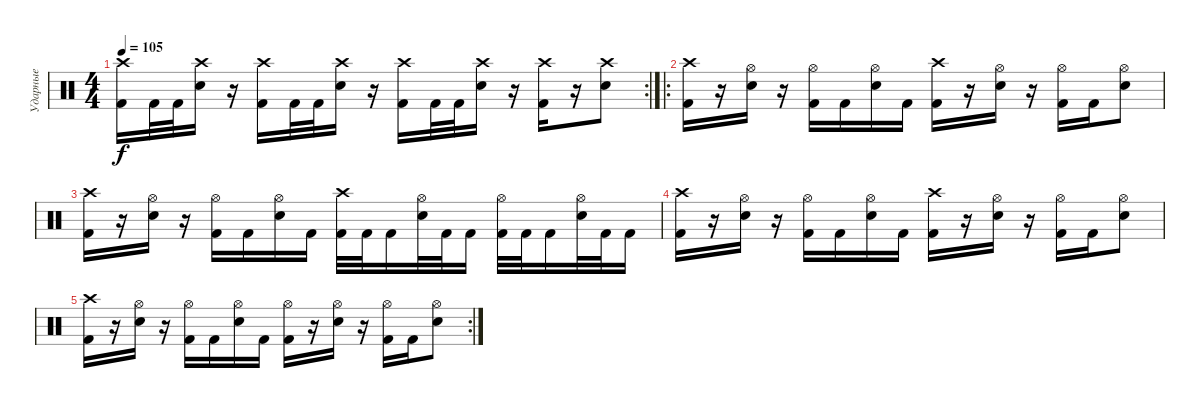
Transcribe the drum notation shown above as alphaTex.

\track ("Ударные" "Ударные") {instrument percussion}
\staff {score}
\articulation defaults
\rc 2
\ts (4 4)
\tempo 105
\clef neutral
\ks c
("Crash high (hit)" "Kick (hit) 2").16{dy f} "Kick (hit) 2".32 "Kick (hit) 2".32 ("Crash high (hit)" "Electric Snare (hit)").16 r.16 ("Crash high (hit)" "Kick (hit) 2").16 "Kick (hit) 2".32 "Kick (hit) 2".32 ("Crash high (hit)" "Electric Snare (hit)").16 r.16 ("Crash high (hit)" "Kick (hit) 2").16 "Kick (hit) 2".32 "Kick (hit) 2".32 ("Crash high (hit)" "Electric Snare (hit)").16 r.16 ("Crash high (hit)" "Kick (hit) 2").16 r.16 ("Crash high (hit)" "Electric Snare (hit)").8 |
\ro
("Crash high (hit)" "Kick (hit) 2").16 r.16 ("Hi-Hat (open)" "Electric Snare (hit)").16 r.16 ("Hi-Hat (open)" "Kick (hit) 2").16 "Kick (hit) 2".16 ("Hi-Hat (open)" "Electric Snare (hit)").16 "Kick (hit) 2".16 ("Crash high (hit)" "Kick (hit) 2").16 r.16 ("Hi-Hat (open)" "Electric Snare (hit)").16 r.16 ("Hi-Hat (open)" "Kick (hit) 2").16 "Kick (hit) 2".16 ("Hi-Hat (open)" "Electric Snare (hit)").8 |
("Crash high (hit)" "Kick (hit) 2").16 r.16 ("Hi-Hat (open)" "Electric Snare (hit)").16 r.16 ("Hi-Hat (open)" "Kick (hit) 2").16 "Kick (hit) 2".16 ("Hi-Hat (open)" "Electric Snare (hit)").16 "Kick (hit) 2".16 ("Crash high (hit)" "Kick (hit) 2").32 "Kick (hit) 2".32 "Kick (hit) 2".16 ("Hi-Hat (open)" "Electric Snare (hit)").32 "Kick (hit) 2".32 "Kick (hit) 2".16 ("Hi-Hat (open)" "Kick (hit) 2").32 "Kick (hit) 2".32 "Kick (hit) 2".16 ("Hi-Hat (open)" "Electric Snare (hit)").32 "Kick (hit) 2".32 "Kick (hit) 2".16 |
("Crash high (hit)" "Kick (hit) 2").16 r.16 ("Hi-Hat (open)" "Electric Snare (hit)").16 r.16 ("Hi-Hat (open)" "Kick (hit) 2").16 "Kick (hit) 2".16 ("Hi-Hat (open)" "Electric Snare (hit)").16 "Kick (hit) 2".16 ("Crash high (hit)" "Kick (hit) 2").16 r.16 ("Hi-Hat (open)" "Electric Snare (hit)").16 r.16 ("Hi-Hat (open)" "Kick (hit) 2").16 "Kick (hit) 2".16 ("Hi-Hat (open)" "Electric Snare (hit)").8 |
\rc 2
("Crash high (hit)" "Kick (hit) 2").16 r.16 ("Hi-Hat (open)" "Electric Snare (hit)").16 r.16 ("Hi-Hat (open)" "Kick (hit) 2").16 "Kick (hit) 2".16 ("Hi-Hat (open)" "Electric Snare (hit)").16 "Kick (hit) 2".16 ("Hi-Hat (open)" "Kick (hit) 2").16 r.16 ("Hi-Hat (open)" "Electric Snare (hit)").16 r.16 ("Hi-Hat (open)" "Kick (hit) 2").16 "Kick (hit) 2".16 ("Hi-Hat (open)" "Electric Snare (hit)").8
